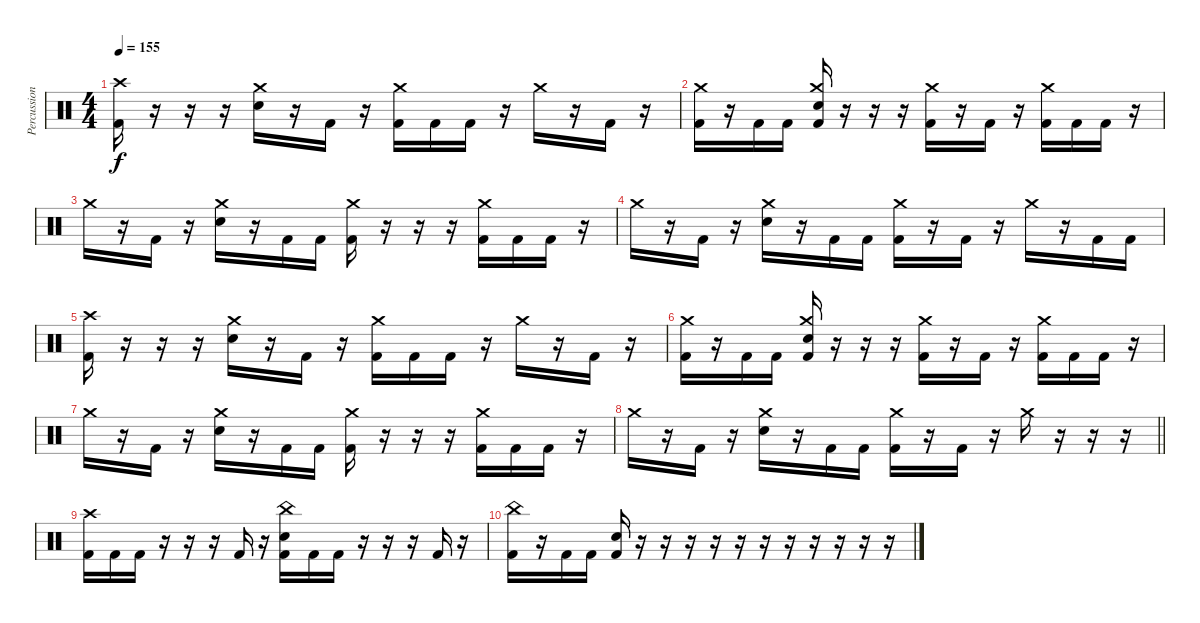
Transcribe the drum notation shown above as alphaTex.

\track ("Percussion" "Percussion") {instrument percussion}
\staff {score}
\articulation defaults
\ts (4 4)
\tempo 155
\clef neutral
\ks c
("Crash high (hit)" "Kick (hit) 2").16{dy f} r.16 r.16 r.16 ("Crash medium (hit)" "Electric Snare (hit)").16 r.16 "Kick (hit) 2".16 r.16 ("Crash medium (hit)" "Kick (hit) 2").16 "Kick (hit) 2".16 "Kick (hit) 2".16 r.16 "Crash medium (hit)".16 r.16 "Kick (hit) 2".16 r.16 |
("Crash medium (hit)" "Kick (hit) 2").16 r.16 "Kick (hit) 2".16 "Kick (hit) 2".16 ("Crash medium (hit)" "Electric Snare (hit)" "Kick (hit) 2").16 r.16 r.16 r.16 ("Crash medium (hit)" "Kick (hit) 2").16 r.16 "Kick (hit) 2".16 r.16 ("Crash medium (hit)" "Kick (hit) 2").16 "Kick (hit) 2".16 "Kick (hit) 2".16 r.16 |
"Crash medium (hit)".16 r.16 "Kick (hit) 2".16 r.16 ("Crash medium (hit)" "Electric Snare (hit)").16 r.16 "Kick (hit) 2".16 "Kick (hit) 2".16 ("Crash medium (hit)" "Kick (hit) 2").16 r.16 r.16 r.16 ("Crash medium (hit)" "Kick (hit) 2").16 "Kick (hit) 2".16 "Kick (hit) 2".16 r.16 |
"Crash medium (hit)".16 r.16 "Kick (hit) 2".16 r.16 ("Crash medium (hit)" "Electric Snare (hit)").16 r.16 "Kick (hit) 2".16 "Kick (hit) 2".16 ("Crash medium (hit)" "Kick (hit) 2").16 r.16 "Kick (hit) 2".16 r.16 "Crash medium (hit)".16 r.16 "Kick (hit) 2".16 "Kick (hit) 2".16 |
("Crash high (hit)" "Kick (hit) 2").16 r.16 r.16 r.16 ("Crash medium (hit)" "Electric Snare (hit)").16 r.16 "Kick (hit) 2".16 r.16 ("Crash medium (hit)" "Kick (hit) 2").16 "Kick (hit) 2".16 "Kick (hit) 2".16 r.16 "Crash medium (hit)".16 r.16 "Kick (hit) 2".16 r.16 |
("Crash medium (hit)" "Kick (hit) 2").16 r.16 "Kick (hit) 2".16 "Kick (hit) 2".16 ("Crash medium (hit)" "Electric Snare (hit)" "Kick (hit) 2").16 r.16 r.16 r.16 ("Crash medium (hit)" "Kick (hit) 2").16 r.16 "Kick (hit) 2".16 r.16 ("Crash medium (hit)" "Kick (hit) 2").16 "Kick (hit) 2".16 "Kick (hit) 2".16 r.16 |
"Crash medium (hit)".16 r.16 "Kick (hit) 2".16 r.16 ("Crash medium (hit)" "Electric Snare (hit)").16 r.16 "Kick (hit) 2".16 "Kick (hit) 2".16 ("Crash medium (hit)" "Kick (hit) 2").16 r.16 r.16 r.16 ("Crash medium (hit)" "Kick (hit) 2").16 "Kick (hit) 2".16 "Kick (hit) 2".16 r.16 |
\barLineRight lightlight "Crash medium (hit)".16
r.16 "Kick (hit) 2".16 r.16 ("Crash medium (hit)" "Electric Snare (hit)").16 r.16 "Kick (hit) 2".16 "Kick (hit) 2".16 ("Crash medium (hit)" "Kick (hit) 2").16 r.16 "Kick (hit) 2".16 r.16 "Crash medium (hit)".16 r.16 r.16 r.16 |
("Crash high (hit)" "Kick (hit) 2").16 "Kick (hit) 2".16 "Kick (hit) 2".16 r.16 r.16 r.16 "Kick (hit) 2".16 r.16 ("China (hit)" "Electric Snare (hit)" "Kick (hit) 2").16 "Kick (hit) 2".16 "Kick (hit) 2".16 r.16 r.16 r.16 "Kick (hit) 2".16 r.16 |
("China (hit)" "Kick (hit) 2").16 r.16 "Kick (hit) 2".16 "Kick (hit) 2".16 ("Electric Snare (hit)" "Kick (hit) 2").16 r.16 r.16 r.16 r.16 r.16 r.16 r.16 r.16 r.16 r.16 r.16
